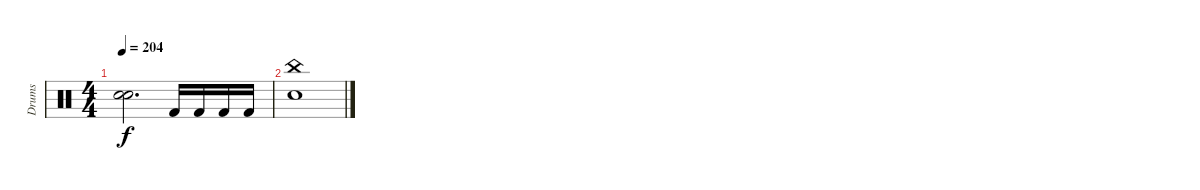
\track ("Drums" "Drums") {instrument percussion}
\staff {score}
\articulation defaults
\ts (4 4)
\tempo 204
\clef neutral
\ks c
("Snare (hit)"{t} "Snare (hit)"{t}).2{d dy f} "Kick (hit) 2".16 "Kick (hit) 2".16 "Kick (hit) 2".16 "Kick (hit) 2".16 |
("China (hit)" "Electric Snare (hit)").1
